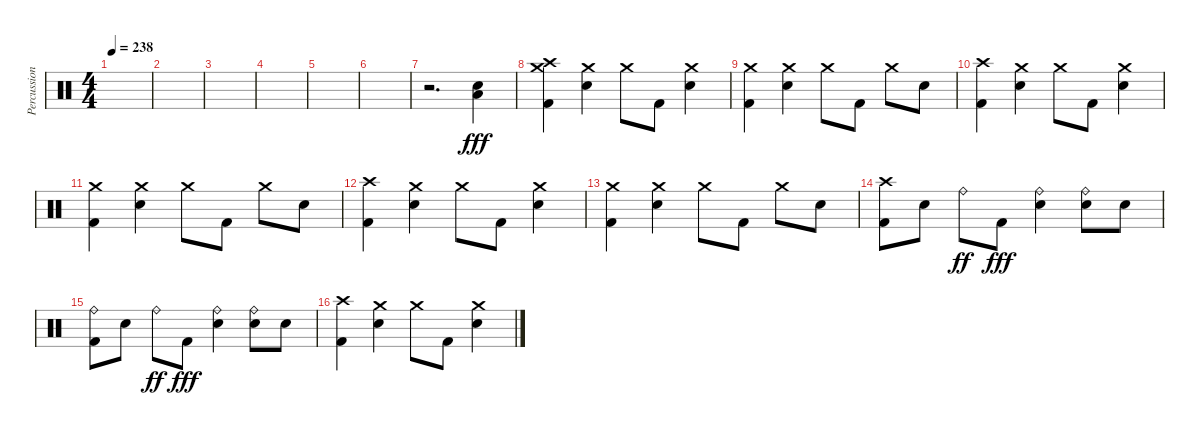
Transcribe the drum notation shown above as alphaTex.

\track ("Percussion" "Percussion") {instrument percussion}
\staff {score}
\articulation defaults
\ts (4 4)
\tempo 238
\clef neutral
\ks c
|
|
|
|
|
|
r.2{d} ("Electric Snare (hit)" "Low Floor Tom (hit)").4{dy fff} |
("Crash high (hit)" "Crash medium (hit)" "Kick (hit) 2").4 ("Crash medium (hit)" "Electric Snare (hit)").4 "Crash medium (hit)".8 "Kick (hit) 2".8 ("Crash medium (hit)" "Electric Snare (hit)").4 |
("Crash medium (hit)" "Kick (hit) 2").4 ("Crash medium (hit)" "Electric Snare (hit)").4 "Crash medium (hit)".8 "Kick (hit) 2".8 "Crash medium (hit)".8 "Electric Snare (hit)".8 |
("Crash high (hit)" "Kick (hit) 2").4 ("Crash medium (hit)" "Electric Snare (hit)").4 "Crash medium (hit)".8 "Kick (hit) 2".8 ("Crash medium (hit)" "Electric Snare (hit)").4 |
("Crash medium (hit)" "Kick (hit) 2").4 ("Crash medium (hit)" "Electric Snare (hit)").4 "Crash medium (hit)".8 "Kick (hit) 2".8 "Crash medium (hit)".8 "Electric Snare (hit)".8 |
("Crash high (hit)" "Kick (hit) 2").4 ("Crash medium (hit)" "Electric Snare (hit)").4 "Crash medium (hit)".8 "Kick (hit) 2".8 ("Crash medium (hit)" "Electric Snare (hit)").4 |
("Crash medium (hit)" "Kick (hit) 2").4 ("Crash medium (hit)" "Electric Snare (hit)").4 "Crash medium (hit)".8 "Kick (hit) 2".8 "Crash medium (hit)".8 "Electric Snare (hit)".8 |
("Crash high (hit)" "Kick (hit) 2").8 "Electric Snare (hit)".8 "Ride (bell)".8{dy ff} "Kick (hit) 2".8{dy fff} ("Ride (bell)" "Electric Snare (hit)").4 ("Ride (bell)" "Electric Snare (hit)").8 "Electric Snare (hit)".8 |
("Ride (bell)" "Kick (hit) 2").8 "Electric Snare (hit)".8 "Ride (bell)".8{dy ff} "Kick (hit) 2".8{dy fff} ("Ride (bell)" "Electric Snare (hit)").4 ("Ride (bell)" "Electric Snare (hit)").8 "Electric Snare (hit)".8 |
("Crash high (hit)" "Kick (hit) 2").4 ("Crash medium (hit)" "Electric Snare (hit)").4 "Crash medium (hit)".8 "Kick (hit) 2".8 ("Crash medium (hit)" "Electric Snare (hit)").4
